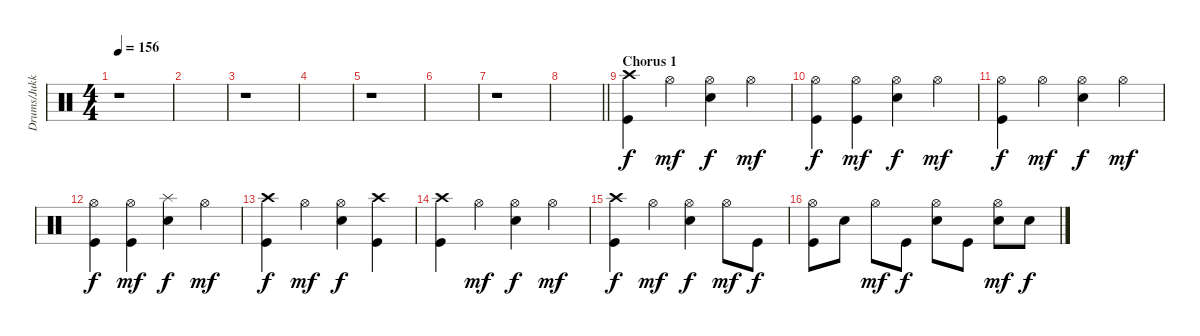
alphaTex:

\track ("Drums/Jukka" "Drums/Jukk") {instrument percussion}
\staff {score}
\articulation defaults
\ts (4 4)
\tempo 156
\clef neutral
\ks c
r.1{dy mf} |
|
r.1 |
|
r.1 |
|
r.1 |
\barLineRight lightlight
|
\section ("" "Chorus 1")
("Crash high (hit)" "Kick (hit)").4{dy f} "Hi-Hat (open)".4{dy mf} ("Hi-Hat (open)" "Electric Snare (hit)").4{dy f} "Hi-Hat (open)".4{dy mf} |
("Hi-Hat (open)" "Kick (hit)").4{dy f} ("Hi-Hat (open)" "Kick (hit)").4{dy mf} ("Hi-Hat (open)" "Electric Snare (hit)").4{dy f} "Hi-Hat (open)".4{dy mf} |
("Hi-Hat (open)" "Kick (hit)").4{dy f} "Hi-Hat (open)".4{dy mf} ("Hi-Hat (open)" "Electric Snare (hit)").4{dy f} "Hi-Hat (open)".4{dy mf} |
("Hi-Hat (open)" "Kick (hit)").4{dy f} ("Hi-Hat (open)" "Kick (hit)").4{dy mf} ("Splash (hit)" "Electric Snare (hit)").4{dy f} "Hi-Hat (open)".4{dy mf} |
("Crash high (hit)" "Kick (hit)").4{dy f} "Hi-Hat (open)".4{dy mf} ("Hi-Hat (open)" "Electric Snare (hit)").4{dy f} ("Crash high (hit)" "Kick (hit)").4 |
("Crash high (hit)" "Kick (hit)").4 "Hi-Hat (open)".4{dy mf} ("Hi-Hat (open)" "Electric Snare (hit)").4{dy f} "Hi-Hat (open)".4{dy mf} |
("Crash high (hit)" "Kick (hit)").4{dy f} "Hi-Hat (open)".4{dy mf} ("Hi-Hat (open)" "Electric Snare (hit)").4{dy f} "Hi-Hat (open)".8{dy mf} "Kick (hit)".8{dy f} |
("Hi-Hat (open)" "Kick (hit)").8 "Electric Snare (hit)".8 "Hi-Hat (open)".8{dy mf} "Kick (hit)".8{dy f} ("Hi-Hat (open)" "Electric Snare (hit)").8 "Kick (hit)".8 ("Hi-Hat (open)" "Electric Snare (hit)").8{dy mf} "Electric Snare (hit)".8{dy f}
